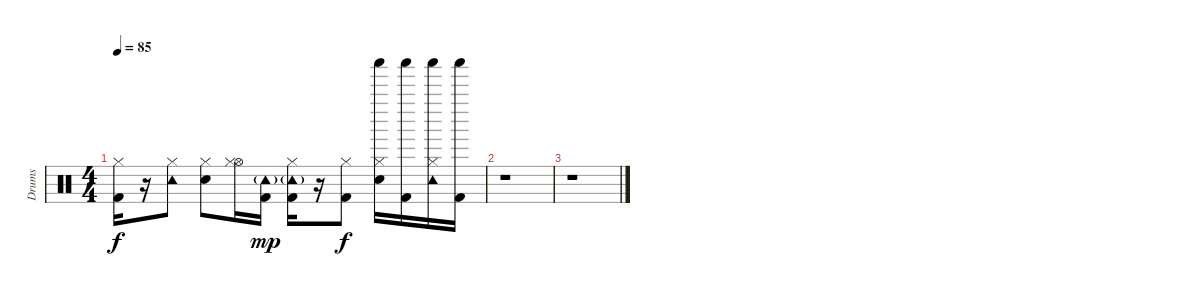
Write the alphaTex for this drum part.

\track ("Drums" "Drums") {instrument percussion}
\staff {score}
\articulation defaults
\ts (4 4)
\tempo 85
\clef neutral
\ks c
("Hi-Hat (closed)" "Kick (hit) 2").16{dy f volume 0} r.16 ("Tambourine (hit)" "Hi-Hat (closed)").8 ("Hi-Hat (closed)" "Snare (hit) 2").8 ("Hi-Hat (open)" "Hi-Hat (closed)").16 ("Tambourine (hit)"{g} "Kick (hit) 2").16{dy mp} ("Tambourine (hit)"{g} "Hi-Hat (closed)" "Kick (hit) 2").16 r.16 ("Hi-Hat (closed)" "Kick (hit) 2").8{dy f} ("Shaker (hit)" "Hi-Hat (closed)" "Snare (hit) 2").16 ("Shaker (hit)" "Kick (hit) 2").16 ("Tambourine (hit)" "Hi-Hat (closed)" "Shaker (hit)").16 ("Shaker (hit)" "Kick (hit) 2").16 |
r.1 |
r.1
